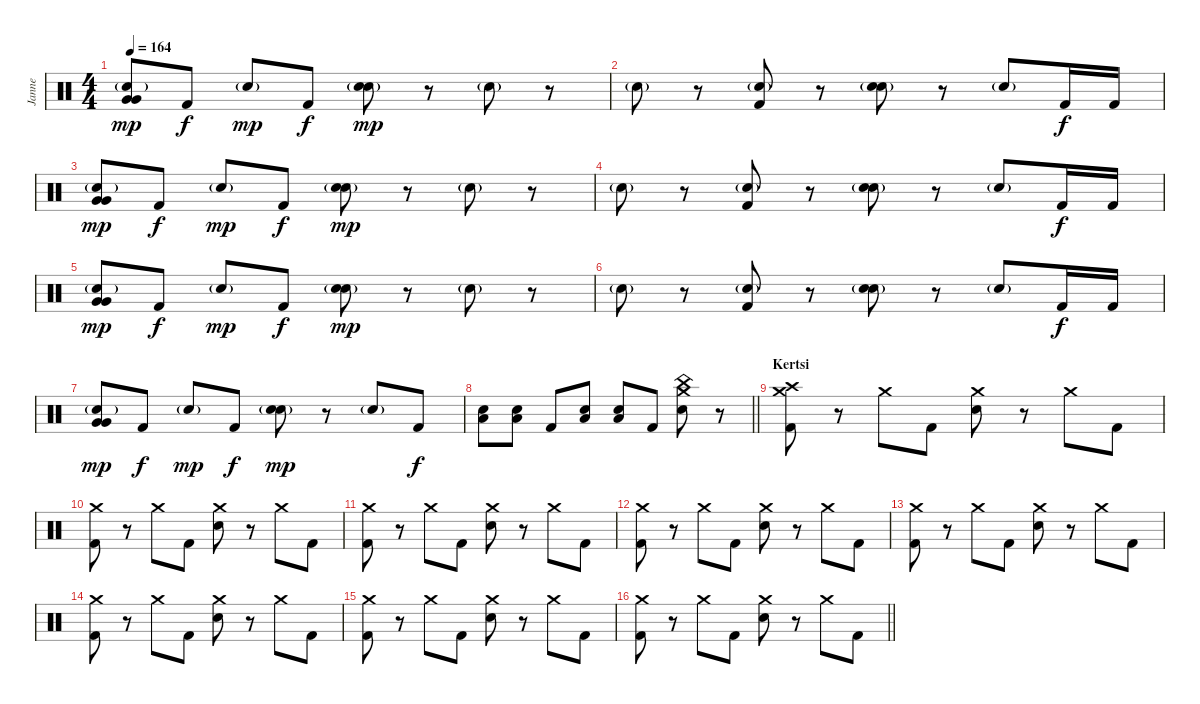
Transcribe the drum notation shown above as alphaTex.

\track ("Janne" "Janne") {instrument percussion}
\staff {score}
\articulation defaults
\ts (4 4)
\tempo 164
\clef neutral
\ks c
("Electric Snare (hit)"{g} "Very Low Tom (hit)" "Very Low Tom (hit)").8{dy mp} "Kick (hit) 2".8{dy f} "Electric Snare (hit)"{g}.8{dy mp} "Kick (hit) 2".8{dy f} ("Electric Snare (hit)"{g} "Electric Snare (hit)").8{dy mp} r.8 "Electric Snare (hit)"{g}.8 r.8 |
"Electric Snare (hit)"{g}.8 r.8 ("Electric Snare (hit)"{g} "Kick (hit) 2").8 r.8 ("Electric Snare (hit)"{g} "Electric Snare (hit)").8 r.8 "Electric Snare (hit)"{g}.8 "Kick (hit) 2".16{dy f} "Kick (hit) 2".16 |
("Electric Snare (hit)"{g} "Very Low Tom (hit)" "Very Low Tom (hit)").8{dy mp} "Kick (hit) 2".8{dy f} "Electric Snare (hit)"{g}.8{dy mp} "Kick (hit) 2".8{dy f} ("Electric Snare (hit)"{g} "Electric Snare (hit)").8{dy mp} r.8 "Electric Snare (hit)"{g}.8 r.8 |
"Electric Snare (hit)"{g}.8 r.8 ("Electric Snare (hit)"{g} "Kick (hit) 2").8 r.8 ("Electric Snare (hit)"{g} "Electric Snare (hit)").8 r.8 "Electric Snare (hit)"{g}.8 "Kick (hit) 2".16{dy f} "Kick (hit) 2".16 |
("Electric Snare (hit)"{g} "Very Low Tom (hit)" "Very Low Tom (hit)").8{dy mp} "Kick (hit) 2".8{dy f} "Electric Snare (hit)"{g}.8{dy mp} "Kick (hit) 2".8{dy f} ("Electric Snare (hit)"{g} "Electric Snare (hit)").8{dy mp} r.8 "Electric Snare (hit)"{g}.8 r.8 |
"Electric Snare (hit)"{g}.8 r.8 ("Electric Snare (hit)"{g} "Kick (hit) 2").8 r.8 ("Electric Snare (hit)"{g} "Electric Snare (hit)").8 r.8 "Electric Snare (hit)"{g}.8 "Kick (hit) 2".16{dy f} "Kick (hit) 2".16 |
("Electric Snare (hit)"{g} "Very Low Tom (hit)" "Very Low Tom (hit)").8{dy mp} "Kick (hit) 2".8{dy f} "Electric Snare (hit)"{g}.8{dy mp} "Kick (hit) 2".8{dy f} ("Electric Snare (hit)"{g} "Electric Snare (hit)").8{dy mp} r.8 "Electric Snare (hit)"{g}.8 "Kick (hit) 2".8{dy f} |
\barLineRight lightlight
("Electric Snare (hit)" "Low Floor Tom (hit)").8 ("Electric Snare (hit)" "Low Floor Tom (hit)").8 "Kick (hit) 2".8 ("Electric Snare (hit)" "Low Floor Tom (hit)").8 ("Electric Snare (hit)" "Low Floor Tom (hit)").8 "Kick (hit) 2".8 ("China (hit)" "Electric Snare (hit)" "Crash medium (hit)").8 r.8 |
\section ("" "Kertsi")
("Crash medium (hit)" "Crash high (hit)" "Kick (hit) 2").8 r.8 "Crash medium (hit)".8 "Kick (hit) 2".8 ("Crash medium (hit)" "Electric Snare (hit)").8 r.8 "Crash medium (hit)".8 "Kick (hit) 2".8 |
("Crash medium (hit)" "Kick (hit) 2").8 r.8 "Crash medium (hit)".8 "Kick (hit) 2".8 ("Crash medium (hit)" "Electric Snare (hit)").8 r.8 "Crash medium (hit)".8 "Kick (hit) 2".8 |
("Crash medium (hit)" "Kick (hit) 2").8 r.8 "Crash medium (hit)".8 "Kick (hit) 2".8 ("Crash medium (hit)" "Electric Snare (hit)").8 r.8 "Crash medium (hit)".8 "Kick (hit) 2".8 |
("Crash medium (hit)" "Kick (hit) 2").8 r.8 "Crash medium (hit)".8 "Kick (hit) 2".8 ("Crash medium (hit)" "Electric Snare (hit)").8 r.8 "Crash medium (hit)".8 "Kick (hit) 2".8 |
("Crash medium (hit)" "Kick (hit) 2").8 r.8 "Crash medium (hit)".8 "Kick (hit) 2".8 ("Crash medium (hit)" "Electric Snare (hit)").8 r.8 "Crash medium (hit)".8 "Kick (hit) 2".8 |
("Crash medium (hit)" "Kick (hit) 2").8 r.8 "Crash medium (hit)".8 "Kick (hit) 2".8 ("Crash medium (hit)" "Electric Snare (hit)").8 r.8 "Crash medium (hit)".8 "Kick (hit) 2".8 |
("Crash medium (hit)" "Kick (hit) 2").8 r.8 "Crash medium (hit)".8 "Kick (hit) 2".8 ("Crash medium (hit)" "Electric Snare (hit)").8 r.8 "Crash medium (hit)".8 "Kick (hit) 2".8 |
\barLineRight lightlight
("Crash medium (hit)" "Kick (hit) 2").8 r.8 "Crash medium (hit)".8 "Kick (hit) 2".8 ("Crash medium (hit)" "Electric Snare (hit)").8 r.8 "Crash medium (hit)".8 "Kick (hit) 2".8
